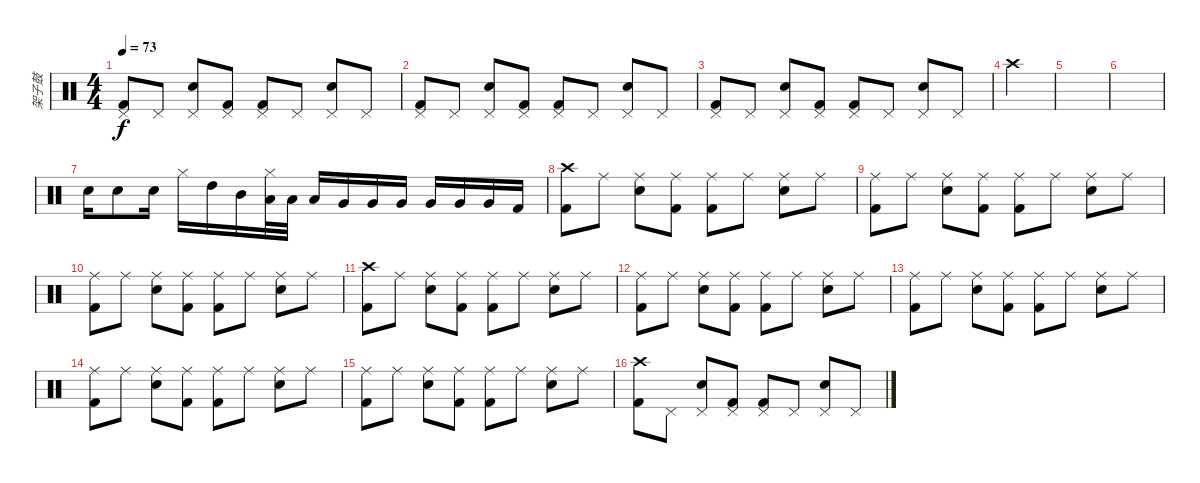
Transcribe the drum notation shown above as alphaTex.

\track ("架子鼓" "架子鼓") {instrument percussion}
\staff {score}
\articulation defaults
\ts (4 4)
\tempo 73
\clef neutral
\ks c
("Pedal Hi-Hat (hit)" "Kick (hit) 2").8{dy f} "Pedal Hi-Hat (hit)".8 ("Pedal Hi-Hat (hit)" "Electric Snare (hit)").8 ("Pedal Hi-Hat (hit)" "Kick (hit) 2").8 ("Pedal Hi-Hat (hit)" "Kick (hit) 2").8 "Pedal Hi-Hat (hit)".8 ("Pedal Hi-Hat (hit)" "Electric Snare (hit)").8 "Pedal Hi-Hat (hit)".8 |
("Pedal Hi-Hat (hit)" "Kick (hit) 2").8 "Pedal Hi-Hat (hit)".8 ("Pedal Hi-Hat (hit)" "Electric Snare (hit)").8 ("Pedal Hi-Hat (hit)" "Kick (hit) 2").8 ("Pedal Hi-Hat (hit)" "Kick (hit) 2").8 "Pedal Hi-Hat (hit)".8 ("Pedal Hi-Hat (hit)" "Electric Snare (hit)").8 "Pedal Hi-Hat (hit)".8 |
("Pedal Hi-Hat (hit)" "Kick (hit) 2").8 "Pedal Hi-Hat (hit)".8 ("Pedal Hi-Hat (hit)" "Electric Snare (hit)").8 ("Pedal Hi-Hat (hit)" "Kick (hit) 2").8 ("Pedal Hi-Hat (hit)" "Kick (hit) 2").8 "Pedal Hi-Hat (hit)".8 ("Pedal Hi-Hat (hit)" "Electric Snare (hit)").8 "Pedal Hi-Hat (hit)".8 |
"Crash high (hit)".4 |
|
|
"Electric Snare (hit)".16 "Electric Snare (hit)".8 "Electric Snare (hit)".16 "Hi-Hat (closed)".16 "High Tom (hit)".16 "Mid Tom (hit)".16 ("Hi-Hat (closed)" "Low Tom (hit)").32 "Low Tom (hit)".32 "Low Tom (hit)".16{balance 5} "Very Low Tom (hit)".16 "Very Low Tom (hit)".16 "Very Low Tom (hit)".16 "Very Low Tom (hit)".16{balance 11} "Very Low Tom (hit)".16 "Very Low Tom (hit)".16 "Kick (hit) 2".16 |
("Crash high (hit)" "Kick (hit) 2").8{balance 8} "Ride (middle)".8 ("Ride (middle)" "Electric Snare (hit)").8 ("Ride (middle)" "Kick (hit) 2").8 ("Ride (middle)" "Kick (hit) 2").8 "Ride (middle)".8 ("Ride (middle)" "Electric Snare (hit)").8 "Ride (middle)".8 |
("Ride (middle)" "Kick (hit) 2").8 "Ride (middle)".8 ("Ride (middle)" "Electric Snare (hit)").8 ("Ride (middle)" "Kick (hit) 2").8 ("Ride (middle)" "Kick (hit) 2").8 "Ride (middle)".8 ("Ride (middle)" "Electric Snare (hit)").8 "Ride (middle)".8 |
("Ride (middle)" "Kick (hit) 2").8 "Ride (middle)".8 ("Ride (middle)" "Electric Snare (hit)").8 ("Ride (middle)" "Kick (hit) 2").8 ("Ride (middle)" "Kick (hit) 2").8 "Ride (middle)".8 ("Ride (middle)" "Electric Snare (hit)").8 "Ride (middle)".8 |
("Crash high (hit)" "Kick (hit) 2").8{balance 8} "Ride (middle)".8 ("Ride (middle)" "Electric Snare (hit)").8 ("Ride (middle)" "Kick (hit) 2").8 ("Ride (middle)" "Kick (hit) 2").8 "Ride (middle)".8 ("Ride (middle)" "Electric Snare (hit)").8 "Ride (middle)".8 |
("Ride (middle)" "Kick (hit) 2").8 "Ride (middle)".8 ("Ride (middle)" "Electric Snare (hit)").8 ("Ride (middle)" "Kick (hit) 2").8 ("Ride (middle)" "Kick (hit) 2").8 "Ride (middle)".8 ("Ride (middle)" "Electric Snare (hit)").8 "Ride (middle)".8 |
("Ride (middle)" "Kick (hit) 2").8 "Ride (middle)".8 ("Ride (middle)" "Electric Snare (hit)").8 ("Ride (middle)" "Kick (hit) 2").8 ("Ride (middle)" "Kick (hit) 2").8 "Ride (middle)".8 ("Ride (middle)" "Electric Snare (hit)").8 "Ride (middle)".8 |
("Ride (middle)" "Kick (hit) 2").8 "Ride (middle)".8 ("Ride (middle)" "Electric Snare (hit)").8 ("Ride (middle)" "Kick (hit) 2").8 ("Ride (middle)" "Kick (hit) 2").8 "Ride (middle)".8 ("Ride (middle)" "Electric Snare (hit)").8 "Ride (middle)".8 |
("Ride (middle)" "Kick (hit) 2").8 "Ride (middle)".8 ("Ride (middle)" "Electric Snare (hit)").8 ("Ride (middle)" "Kick (hit) 2").8 ("Ride (middle)" "Kick (hit) 2").8 "Ride (middle)".8 ("Ride (middle)" "Electric Snare (hit)").8 "Ride (middle)".8 |
("Crash high (hit)" "Kick (hit) 2").8 "Pedal Hi-Hat (hit)".8 ("Pedal Hi-Hat (hit)" "Electric Snare (hit)").8 ("Pedal Hi-Hat (hit)" "Kick (hit) 2").8 ("Pedal Hi-Hat (hit)" "Kick (hit) 2").8 "Pedal Hi-Hat (hit)".8 ("Pedal Hi-Hat (hit)" "Electric Snare (hit)").8 "Pedal Hi-Hat (hit)".8
